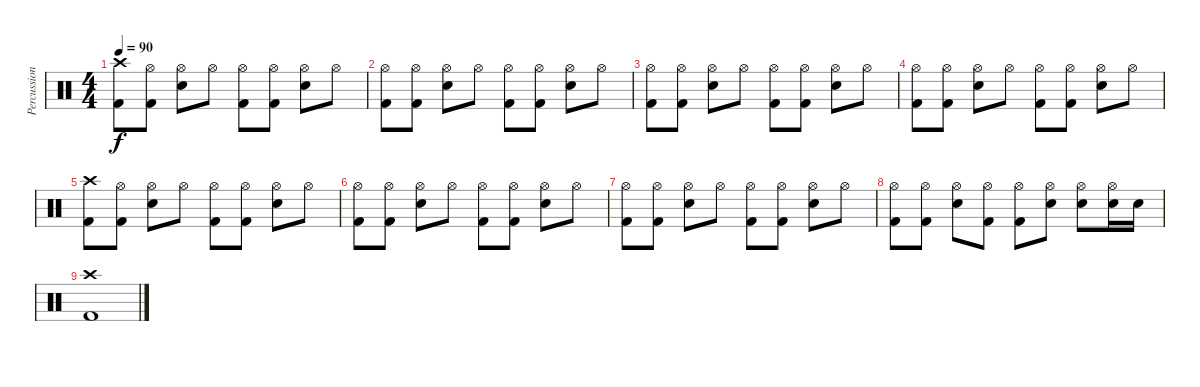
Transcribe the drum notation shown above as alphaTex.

\track ("Percussions" "Percussion") {instrument percussion}
\staff {score}
\articulation defaults
\ts (4 4)
\tempo 90
\clef neutral
\ks c
("Crash high (hit)" "Kick (hit) 2").8{dy f} ("Hi-Hat (open)" "Kick (hit) 2").8 ("Hi-Hat (open)" "Snare (hit) 2").8 "Hi-Hat (open)".8 ("Hi-Hat (open)" "Kick (hit) 2").8 ("Hi-Hat (open)" "Kick (hit) 2").8 ("Hi-Hat (open)" "Snare (hit) 2").8 "Hi-Hat (open)".8 |
("Hi-Hat (open)" "Kick (hit) 2").8 ("Hi-Hat (open)" "Kick (hit) 2").8 ("Hi-Hat (open)" "Snare (hit) 2").8 "Hi-Hat (open)".8 ("Hi-Hat (open)" "Kick (hit) 2").8 ("Hi-Hat (open)" "Kick (hit) 2").8 ("Hi-Hat (open)" "Snare (hit) 2").8 "Hi-Hat (open)".8 |
("Hi-Hat (open)" "Kick (hit) 2").8 ("Hi-Hat (open)" "Kick (hit) 2").8 ("Hi-Hat (open)" "Snare (hit) 2").8 "Hi-Hat (open)".8 ("Hi-Hat (open)" "Kick (hit) 2").8 ("Hi-Hat (open)" "Kick (hit) 2").8 ("Hi-Hat (open)" "Snare (hit) 2").8 "Hi-Hat (open)".8 |
("Hi-Hat (open)" "Kick (hit) 2").8 ("Hi-Hat (open)" "Kick (hit) 2").8 ("Hi-Hat (open)" "Snare (hit) 2").8 "Hi-Hat (open)".8 ("Hi-Hat (open)" "Kick (hit) 2").8 ("Hi-Hat (open)" "Kick (hit) 2").8 ("Hi-Hat (open)" "Snare (hit) 2").8 "Hi-Hat (open)".8 |
("Crash high (hit)" "Kick (hit) 2").8 ("Hi-Hat (open)" "Kick (hit) 2").8 ("Hi-Hat (open)" "Snare (hit) 2").8 "Hi-Hat (open)".8 ("Hi-Hat (open)" "Kick (hit) 2").8 ("Hi-Hat (open)" "Kick (hit) 2").8 ("Hi-Hat (open)" "Snare (hit) 2").8 "Hi-Hat (open)".8 |
("Hi-Hat (open)" "Kick (hit) 2").8 ("Hi-Hat (open)" "Kick (hit) 2").8 ("Hi-Hat (open)" "Snare (hit) 2").8 "Hi-Hat (open)".8 ("Hi-Hat (open)" "Kick (hit) 2").8 ("Hi-Hat (open)" "Kick (hit) 2").8 ("Hi-Hat (open)" "Snare (hit) 2").8 "Hi-Hat (open)".8 |
("Hi-Hat (open)" "Kick (hit) 2").8 ("Hi-Hat (open)" "Kick (hit) 2").8 ("Hi-Hat (open)" "Snare (hit) 2").8 "Hi-Hat (open)".8 ("Hi-Hat (open)" "Kick (hit) 2").8 ("Hi-Hat (open)" "Kick (hit) 2").8 ("Hi-Hat (open)" "Snare (hit) 2").8 "Hi-Hat (open)".8 |
("Hi-Hat (open)" "Kick (hit) 2").8 ("Hi-Hat (open)" "Kick (hit) 2").8 ("Hi-Hat (open)" "Snare (hit) 2").8 ("Hi-Hat (open)" "Kick (hit) 2").8 ("Hi-Hat (open)" "Kick (hit) 2").8 ("Hi-Hat (open)" "Snare (hit) 2").8 ("Hi-Hat (open)" "Snare (hit) 2").8 ("Hi-Hat (open)" "Snare (hit) 2").16 "Snare (hit) 2".16 |
("Crash high (hit)" "Kick (hit) 2").1
